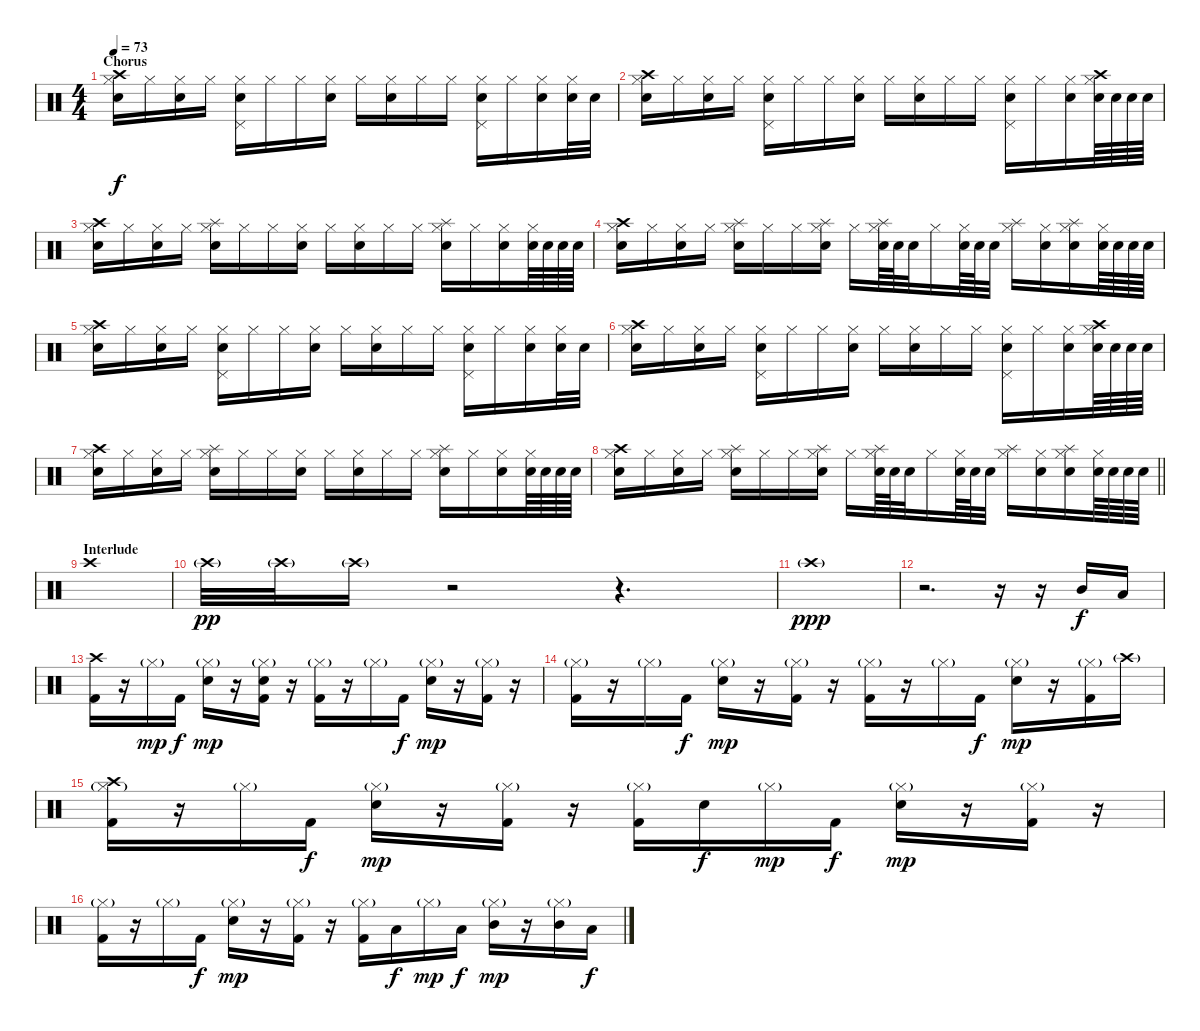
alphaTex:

\track "" {instrument percussion}
\staff {score}
\articulation defaults
\ts (4 4)
\section ("" "Chorus")
\tempo 73
\clef neutral
\ks c
("Crash high (hit)" "Hi-Hat (closed)" "Snare (hit) 2").16{dy f} "Hi-Hat (closed)".16 ("Hi-Hat (closed)" "Snare (hit) 2").16 "Hi-Hat (closed)".16 ("Pedal Hi-Hat (hit)" "Hi-Hat (closed)" "Snare (hit) 2").16 "Hi-Hat (closed)".16 "Hi-Hat (closed)".16 ("Hi-Hat (closed)" "Snare (hit) 2").16 "Hi-Hat (closed)".16 ("Hi-Hat (closed)" "Snare (hit) 2").16 "Hi-Hat (closed)".16 "Hi-Hat (closed)".16 ("Pedal Hi-Hat (hit)" "Hi-Hat (closed)" "Snare (hit) 2").16 "Hi-Hat (closed)".16 ("Hi-Hat (closed)" "Snare (hit) 2").16 ("Hi-Hat (closed)" "Snare (hit) 2").32 "Snare (hit) 2".32 |
("Crash high (hit)" "Hi-Hat (closed)" "Snare (hit) 2").16 "Hi-Hat (closed)".16 ("Hi-Hat (closed)" "Snare (hit) 2").16 "Hi-Hat (closed)".16 ("Pedal Hi-Hat (hit)" "Hi-Hat (closed)" "Snare (hit) 2").16 "Hi-Hat (closed)".16 "Hi-Hat (closed)".16 ("Hi-Hat (closed)" "Snare (hit) 2").16 "Hi-Hat (closed)".16 ("Hi-Hat (closed)" "Snare (hit) 2").16 "Hi-Hat (closed)".16 "Hi-Hat (closed)".16 ("Pedal Hi-Hat (hit)" "Hi-Hat (closed)" "Snare (hit) 2").16 "Hi-Hat (closed)".16 ("Hi-Hat (closed)" "Snare (hit) 2").16 ("Crash high (hit)" "Hi-Hat (closed)" "Snare (hit) 2").64 "Snare (hit) 2".64 "Snare (hit) 2".64 "Snare (hit) 2".64 |
("Crash high (hit)" "Hi-Hat (closed)" "Snare (hit) 2").16 "Hi-Hat (closed)".16 ("Hi-Hat (closed)" "Snare (hit) 2").16 "Hi-Hat (closed)".16 ("Splash (hit)" "Hi-Hat (closed)" "Snare (hit) 2").16 "Hi-Hat (closed)".16 "Hi-Hat (closed)".16 ("Hi-Hat (closed)" "Snare (hit) 2").16 "Hi-Hat (closed)".16 ("Hi-Hat (closed)" "Snare (hit) 2").16 "Hi-Hat (closed)".16 "Hi-Hat (closed)".16 ("Splash (hit)" "Hi-Hat (closed)" "Snare (hit) 2").16 "Hi-Hat (closed)".16 ("Hi-Hat (closed)" "Snare (hit) 2").16 ("Hi-Hat (closed)" "Snare (hit) 2").64 "Snare (hit) 2".64 "Snare (hit) 2".64 "Snare (hit) 2".64 |
("Crash high (hit)" "Hi-Hat (closed)" "Snare (hit) 2").16 "Hi-Hat (closed)".16 ("Hi-Hat (closed)" "Snare (hit) 2").16 "Hi-Hat (closed)".16 ("Splash (hit)" "Hi-Hat (closed)" "Snare (hit) 2").16 "Hi-Hat (closed)".16 "Hi-Hat (closed)".16 ("Splash (hit)" "Hi-Hat (closed)" "Snare (hit) 2").16 "Hi-Hat (closed)".16 ("Splash (hit)" "Hi-Hat (closed)" "Snare (hit) 2").64 "Snare (hit) 2".64 "Snare (hit) 2".32 "Hi-Hat (closed)".16 ("Hi-Hat (closed)" "Snare (hit) 2").64 "Snare (hit) 2".64 "Snare (hit) 2".32 ("Splash (hit)" "Hi-Hat (closed)").16 ("Hi-Hat (closed)" "Snare (hit) 2").16 ("Splash (hit)" "Hi-Hat (closed)" "Snare (hit) 2").16 ("Hi-Hat (closed)" "Snare (hit) 2").64 "Snare (hit) 2".64 "Snare (hit) 2".64 "Snare (hit) 2".64 |
("Crash high (hit)" "Hi-Hat (closed)" "Snare (hit) 2").16 "Hi-Hat (closed)".16 ("Hi-Hat (closed)" "Snare (hit) 2").16 "Hi-Hat (closed)".16 ("Pedal Hi-Hat (hit)" "Hi-Hat (closed)" "Snare (hit) 2").16 "Hi-Hat (closed)".16 "Hi-Hat (closed)".16 ("Hi-Hat (closed)" "Snare (hit) 2").16 "Hi-Hat (closed)".16 ("Hi-Hat (closed)" "Snare (hit) 2").16 "Hi-Hat (closed)".16 "Hi-Hat (closed)".16 ("Pedal Hi-Hat (hit)" "Hi-Hat (closed)" "Snare (hit) 2").16 "Hi-Hat (closed)".16 ("Hi-Hat (closed)" "Snare (hit) 2").16 ("Hi-Hat (closed)" "Snare (hit) 2").32 "Snare (hit) 2".32 |
("Crash high (hit)" "Hi-Hat (closed)" "Snare (hit) 2").16 "Hi-Hat (closed)".16 ("Hi-Hat (closed)" "Snare (hit) 2").16 "Hi-Hat (closed)".16 ("Pedal Hi-Hat (hit)" "Hi-Hat (closed)" "Snare (hit) 2").16 "Hi-Hat (closed)".16 "Hi-Hat (closed)".16 ("Hi-Hat (closed)" "Snare (hit) 2").16 "Hi-Hat (closed)".16 ("Hi-Hat (closed)" "Snare (hit) 2").16 "Hi-Hat (closed)".16 "Hi-Hat (closed)".16 ("Pedal Hi-Hat (hit)" "Hi-Hat (closed)" "Snare (hit) 2").16 "Hi-Hat (closed)".16 ("Hi-Hat (closed)" "Snare (hit) 2").16 ("Crash high (hit)" "Hi-Hat (closed)" "Snare (hit) 2").64 "Snare (hit) 2".64 "Snare (hit) 2".64 "Snare (hit) 2".64 |
("Crash high (hit)" "Hi-Hat (closed)" "Snare (hit) 2").16 "Hi-Hat (closed)".16 ("Hi-Hat (closed)" "Snare (hit) 2").16 "Hi-Hat (closed)".16 ("Splash (hit)" "Hi-Hat (closed)" "Snare (hit) 2").16 "Hi-Hat (closed)".16 "Hi-Hat (closed)".16 ("Hi-Hat (closed)" "Snare (hit) 2").16 "Hi-Hat (closed)".16 ("Hi-Hat (closed)" "Snare (hit) 2").16 "Hi-Hat (closed)".16 "Hi-Hat (closed)".16 ("Splash (hit)" "Hi-Hat (closed)" "Snare (hit) 2").16 "Hi-Hat (closed)".16 ("Hi-Hat (closed)" "Snare (hit) 2").16 ("Hi-Hat (closed)" "Snare (hit) 2").64 "Snare (hit) 2".64 "Snare (hit) 2".64 "Snare (hit) 2".64 |
\barLineRight lightlight
("Crash high (hit)" "Hi-Hat (closed)" "Snare (hit) 2").16 "Hi-Hat (closed)".16 ("Hi-Hat (closed)" "Snare (hit) 2").16 "Hi-Hat (closed)".16 ("Splash (hit)" "Hi-Hat (closed)" "Snare (hit) 2").16 "Hi-Hat (closed)".16 "Hi-Hat (closed)".16 ("Splash (hit)" "Hi-Hat (closed)" "Snare (hit) 2").16 "Hi-Hat (closed)".16 ("Splash (hit)" "Hi-Hat (closed)" "Snare (hit) 2").64 "Snare (hit) 2".64 "Snare (hit) 2".32 "Hi-Hat (closed)".16 ("Hi-Hat (closed)" "Snare (hit) 2").64 "Snare (hit) 2".64 "Snare (hit) 2".32 ("Splash (hit)" "Hi-Hat (closed)").16 ("Hi-Hat (closed)" "Snare (hit) 2").16 ("Splash (hit)" "Hi-Hat (closed)" "Snare (hit) 2").16 ("Hi-Hat (closed)" "Snare (hit) 2").64 "Snare (hit) 2".64 "Snare (hit) 2".64 "Snare (hit) 2".64 |
\section ("" "Interlude")
"Crash high (hit)".1 |
"Crash high (hit)"{g}.32{dy pp} "Crash high (hit)"{g}.32 "Crash high (hit)"{g}.16 r.2 r.4{d} |
"Crash high (hit)"{g}.1{dy ppp} |
r.2{d} r.16 r.16 "Mid Tom (hit)".16{dy f} "Low Tom (hit)".16 |
("Crash high (hit)" "Kick (hit) 2").16 r.16 "Hi-Hat (closed)"{g}.16{dy mp} "Kick (hit) 2".16{dy f} ("Hi-Hat (closed)"{g} "Snare (hit) 2").16{dy mp} r.16 ("Metronome (bell)" "Hi-Hat (closed)"{g} "Kick (hit) 2").16 r.16 ("Hi-Hat (closed)"{g} "Kick (hit) 2").16 r.16 "Hi-Hat (closed)"{g}.16 "Kick (hit) 2".16{dy f} ("Hi-Hat (closed)"{g} "Snare (hit) 2").16{dy mp} r.16 ("Hi-Hat (closed)"{g} "Kick (hit) 2").16 r.16 |
("Hi-Hat (closed)"{g} "Kick (hit) 2").16 r.16 "Hi-Hat (closed)"{g}.16 "Kick (hit) 2".16{dy f} ("Hi-Hat (closed)"{g} "Snare (hit) 2").16{dy mp} r.16 ("Hi-Hat (closed)"{g} "Kick (hit) 2").16 r.16 ("Hi-Hat (closed)"{g} "Kick (hit) 2").16 r.16 "Hi-Hat (closed)"{g}.16 "Kick (hit) 2".16{dy f} ("Hi-Hat (closed)"{g} "Snare (hit) 2").16{dy mp} r.16 ("Hi-Hat (closed)"{g} "Kick (hit) 2").16 "Crash high (hit)"{g}.16 |
("Crash high (hit)" "Hi-Hat (closed)"{g} "Kick (hit) 2").16 r.16 "Hi-Hat (closed)"{g}.16 "Kick (hit) 2".16{dy f} ("Hi-Hat (closed)"{g} "Snare (hit) 2").16{dy mp} r.16 ("Hi-Hat (closed)"{g} "Kick (hit) 2").16 r.16 ("Hi-Hat (closed)"{g} "Kick (hit) 2").16 "Snare (hit) 2".16{dy f} "Hi-Hat (closed)"{g}.16{dy mp} "Kick (hit) 2".16{dy f} ("Hi-Hat (closed)"{g} "Snare (hit) 2").16{dy mp} r.16 ("Hi-Hat (closed)"{g} "Kick (hit) 2").16 r.16 |
("Hi-Hat (closed)"{g} "Kick (hit) 2").16 r.16 "Hi-Hat (closed)"{g}.16 "Kick (hit) 2".16{dy f} ("Hi-Hat (closed)"{g} "Snare (hit) 2").16{dy mp} r.16 ("Hi-Hat (closed)"{g} "Kick (hit) 2").16 r.16 ("Hi-Hat (closed)"{g} "Kick (hit) 2").16 "Low Floor Tom (hit)".16{dy f} "Hi-Hat (closed)"{g}.16{dy mp} "Low Tom (hit)".16{dy f} ("Hi-Hat (closed)"{g} "Mid Tom (hit)").16{dy mp} r.16 ("Hi-Hat (closed)"{g} "Mid Tom (hit)").16 "Low Tom (hit)".16{dy f}
